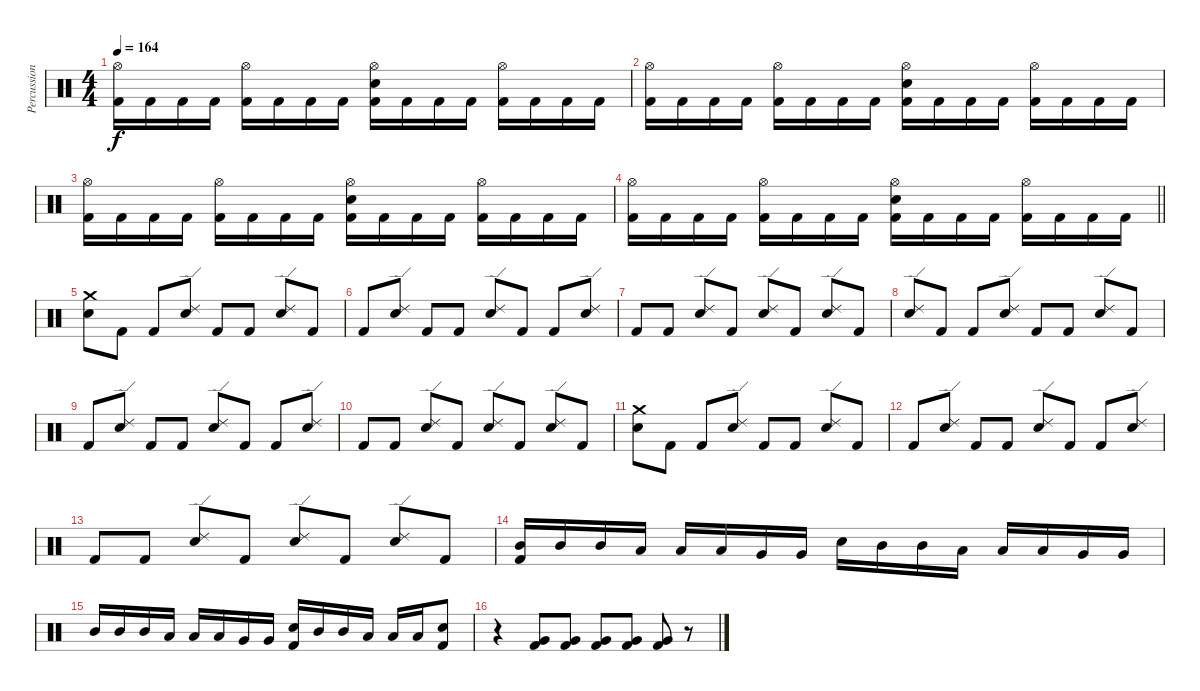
\track ("Percussions" "Percussion") {instrument percussion}
\staff {score}
\articulation defaults
\ts (4 4)
\tempo 164
\clef neutral
\ks c
("Hi-Hat (open)" "Kick (hit) 2").16{dy f} "Kick (hit) 2".16 "Kick (hit) 2".16 "Kick (hit) 2".16 ("Hi-Hat (open)" "Kick (hit) 2").16 "Kick (hit) 2".16 "Kick (hit) 2".16 "Kick (hit) 2".16 ("Hi-Hat (open)" "Snare (hit) 2" "Kick (hit) 2").16 "Kick (hit) 2".16 "Kick (hit) 2".16 "Kick (hit) 2".16 ("Hi-Hat (open)" "Kick (hit) 2").16 "Kick (hit) 2".16 "Kick (hit) 2".16 "Kick (hit) 2".16 |
("Hi-Hat (open)" "Kick (hit) 2").16 "Kick (hit) 2".16 "Kick (hit) 2".16 "Kick (hit) 2".16 ("Hi-Hat (open)" "Kick (hit) 2").16 "Kick (hit) 2".16 "Kick (hit) 2".16 "Kick (hit) 2".16 ("Hi-Hat (open)" "Snare (hit) 2" "Kick (hit) 2").16 "Kick (hit) 2".16 "Kick (hit) 2".16 "Kick (hit) 2".16 ("Hi-Hat (open)" "Kick (hit) 2").16 "Kick (hit) 2".16 "Kick (hit) 2".16 "Kick (hit) 2".16 |
("Hi-Hat (open)" "Kick (hit) 2").16 "Kick (hit) 2".16 "Kick (hit) 2".16 "Kick (hit) 2".16 ("Hi-Hat (open)" "Kick (hit) 2").16 "Kick (hit) 2".16 "Kick (hit) 2".16 "Kick (hit) 2".16 ("Hi-Hat (open)" "Snare (hit) 2" "Kick (hit) 2").16 "Kick (hit) 2".16 "Kick (hit) 2".16 "Kick (hit) 2".16 ("Hi-Hat (open)" "Kick (hit) 2").16 "Kick (hit) 2".16 "Kick (hit) 2".16 "Kick (hit) 2".16 |
\barLineRight lightlight
("Hi-Hat (open)" "Kick (hit) 2").16 "Kick (hit) 2".16 "Kick (hit) 2".16 "Kick (hit) 2".16 ("Hi-Hat (open)" "Kick (hit) 2").16 "Kick (hit) 2".16 "Kick (hit) 2".16 "Kick (hit) 2".16 ("Hi-Hat (open)" "Snare (hit) 2" "Kick (hit) 2").16 "Kick (hit) 2".16 "Kick (hit) 2".16 "Kick (hit) 2".16 ("Hi-Hat (open)" "Kick (hit) 2").16 "Kick (hit) 2".16 "Kick (hit) 2".16 "Kick (hit) 2".16 |
("Crash medium (hit)" "Snare (hit) 2").8 "Kick (hit) 2".8 "Kick (hit) 2".8 ("Ride (edge) 2" "Snare (hit) 2").8 "Kick (hit) 2".8 "Kick (hit) 2".8 ("Ride (edge) 2" "Snare (hit) 2").8 "Kick (hit) 2".8 |
"Kick (hit) 2".8 ("Ride (edge) 2" "Snare (hit) 2").8 "Kick (hit) 2".8 "Kick (hit) 2".8 ("Ride (edge) 2" "Snare (hit) 2").8 "Kick (hit) 2".8 "Kick (hit) 2".8 ("Ride (edge) 2" "Snare (hit) 2").8 |
"Kick (hit) 2".8 "Kick (hit) 2".8 ("Ride (edge) 2" "Snare (hit) 2").8 "Kick (hit) 2".8 ("Ride (edge) 2" "Snare (hit) 2").8 "Kick (hit) 2".8 ("Ride (edge) 2" "Snare (hit) 2").8 "Kick (hit) 2".8 |
("Ride (edge) 2" "Snare (hit) 2").8 "Kick (hit) 2".8 "Kick (hit) 2".8 ("Ride (edge) 2" "Snare (hit) 2").8 "Kick (hit) 2".8 "Kick (hit) 2".8 ("Ride (edge) 2" "Snare (hit) 2").8 "Kick (hit) 2".8 |
"Kick (hit) 2".8 ("Ride (edge) 2" "Snare (hit) 2").8 "Kick (hit) 2".8 "Kick (hit) 2".8 ("Ride (edge) 2" "Snare (hit) 2").8 "Kick (hit) 2".8 "Kick (hit) 2".8 ("Ride (edge) 2" "Snare (hit) 2").8 |
"Kick (hit) 2".8 "Kick (hit) 2".8 ("Ride (edge) 2" "Snare (hit) 2").8 "Kick (hit) 2".8 ("Ride (edge) 2" "Snare (hit) 2").8 "Kick (hit) 2".8 ("Ride (edge) 2" "Snare (hit) 2").8 "Kick (hit) 2".8 |
("Crash medium (hit)" "Snare (hit) 2").8 "Kick (hit) 2".8 "Kick (hit) 2".8 ("Ride (edge) 2" "Snare (hit) 2").8 "Kick (hit) 2".8 "Kick (hit) 2".8 ("Ride (edge) 2" "Snare (hit) 2").8 "Kick (hit) 2".8 |
"Kick (hit) 2".8 ("Ride (edge) 2" "Snare (hit) 2").8 "Kick (hit) 2".8 "Kick (hit) 2".8 ("Ride (edge) 2" "Snare (hit) 2").8 "Kick (hit) 2".8 "Kick (hit) 2".8 ("Ride (edge) 2" "Snare (hit) 2").8 |
"Kick (hit) 2".8 "Kick (hit) 2".8 ("Ride (edge) 2" "Snare (hit) 2").8 "Kick (hit) 2".8 ("Ride (edge) 2" "Snare (hit) 2").8 "Kick (hit) 2".8 ("Ride (edge) 2" "Snare (hit) 2").8 "Kick (hit) 2".8 |
("Mid Tom (hit)" "Kick (hit) 2").16 "Mid Tom (hit)".16 "Mid Tom (hit)".16 "Low Tom (hit)".16 "Low Tom (hit)".16 "Low Tom (hit)".16 "Very Low Tom (hit)".16 "Very Low Tom (hit)".16 "Snare (hit) 2".16 "Mid Tom (hit)".16 "Mid Tom (hit)".16 "Low Tom (hit)".16 "Low Tom (hit)".16 "Low Tom (hit)".16 "Very Low Tom (hit)".16 "Very Low Tom (hit)".16 |
"Mid Tom (hit)".16 "Mid Tom (hit)".16 "Mid Tom (hit)".16 "Low Tom (hit)".16 "Low Tom (hit)".16 "Low Tom (hit)".16 "Very Low Tom (hit)".16 "Very Low Tom (hit)".16 ("Snare (hit) 2" "Kick (hit) 2").16 "Mid Tom (hit)".16 "Mid Tom (hit)".16 "Low Tom (hit)".16 "Low Tom (hit)".16 "Low Tom (hit)".16 ("Snare (hit) 2" "Kick (hit) 2").8 |
r.4 ("Very Low Tom (hit)" "Kick (hit) 2").8 ("Very Low Tom (hit)" "Kick (hit) 2").8 ("Very Low Tom (hit)" "Kick (hit) 2").8 ("Very Low Tom (hit)" "Kick (hit) 2").8 ("Very Low Tom (hit)" "Kick (hit) 2").8 r.8
